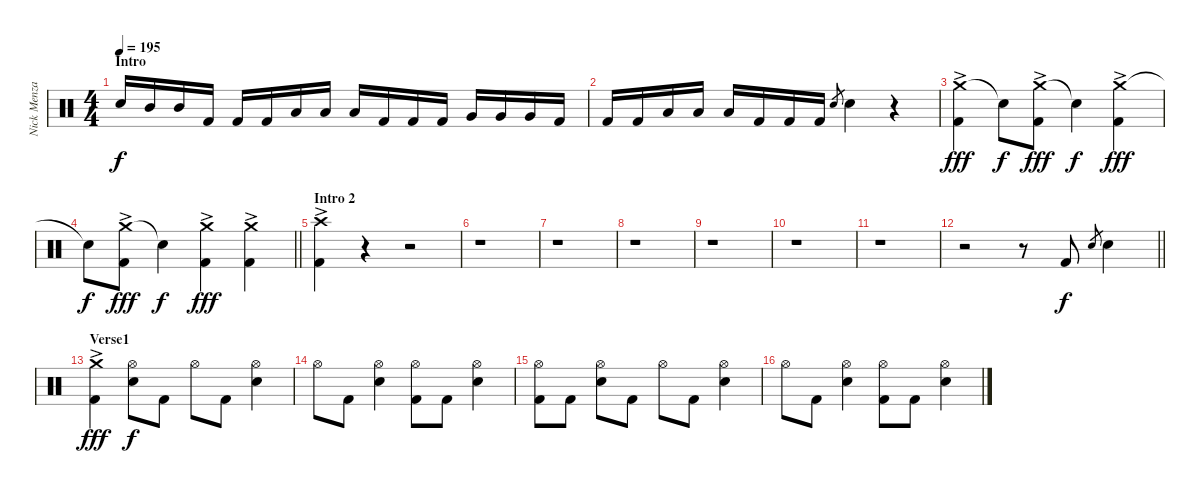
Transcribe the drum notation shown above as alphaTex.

\track ("Nick Menza" "Nick Menza") {instrument percussion}
\staff {score}
\articulation defaults
\ts (4 4)
\section ("" "Intro")
\tempo 195
\clef neutral
\ks c "Snare (hit) 2".16{dy f} "Mid Tom (hit)".16 "Mid Tom (hit)".16 "Kick (hit) 2".16 "Kick (hit) 2".16 "Kick (hit) 2".16 "Low Tom (hit)".16 "Low Tom (hit)".16 "Low Tom (hit)".16 "Kick (hit) 2".16 "Kick (hit) 2".16 "Kick (hit) 2".16 "Very Low Tom (hit)".16 "Very Low Tom (hit)".16 "Very Low Tom (hit)".16 "Kick (hit) 2".16
|
"Kick (hit) 2".16 "Kick (hit) 2".16 "Low Floor Tom (hit)".16 "Low Floor Tom (hit)".16 "Low Floor Tom (hit)".16 "Kick (hit) 2".16 "Kick (hit) 2".16 "Kick (hit) 2".16 "Snare (hit) 2".8{gr} "Snare (hit) 2".4 r.4 |
("Crash medium (hit)"{ac} "Kick (hit) 2").4{dy fff} "Snare (hit)"{t}.8{dy f} ("Crash medium (hit)"{ac} "Kick (hit) 2").8{dy fff} "Snare (hit)"{t}.4{dy f} ("Crash medium (hit)"{ac} "Kick (hit) 2").4{dy fff} |
\barLineRight lightlight "Snare (hit)"{t}.8{dy f}
("Crash medium (hit)"{ac} "Kick (hit) 2").8{dy fff} "Snare (hit)"{t}.4{dy f} ("Crash medium (hit)"{ac} "Kick (hit) 2").4{dy fff} ("Crash medium (hit)"{ac} "Kick (hit) 2").4 |
\section ("" "Intro 2")
("Crash high (hit)"{ac} "Kick (hit) 2").4 r.4 r.2 |
r.1 |
r.1 |
r.1 |
r.1 |
r.1 |
r.1 |
\barLineRight lightlight
r.2 r.8 "Kick (hit) 2".8{dy f} "Snare (hit) 2".8{gr} "Snare (hit) 2".4 |
\section ("" "Verse1")
("Crash medium (hit)"{ac} "Kick (hit) 2").4{dy fff} ("Hi-Hat (open)" "Snare (hit) 2").8{dy f} "Kick (hit) 2".8 "Hi-Hat (open)".8 "Kick (hit) 2".8 ("Hi-Hat (open)" "Snare (hit) 2").4 |
"Hi-Hat (open)".8 "Kick (hit) 2".8 ("Hi-Hat (open)" "Snare (hit) 2").4 ("Hi-Hat (open)" "Kick (hit) 2").8 "Kick (hit) 2".8 ("Hi-Hat (open)" "Snare (hit) 2").4 |
("Hi-Hat (open)" "Kick (hit) 2").8 "Kick (hit) 2".8 ("Hi-Hat (open)" "Snare (hit) 2").8 "Kick (hit) 2".8 "Hi-Hat (open)".8 "Kick (hit) 2".8 ("Hi-Hat (open)" "Snare (hit) 2").4 |
"Hi-Hat (open)".8 "Kick (hit) 2".8 ("Hi-Hat (open)" "Snare (hit) 2").4 ("Hi-Hat (open)" "Kick (hit) 2").8 "Kick (hit) 2".8 ("Hi-Hat (open)" "Snare (hit) 2").4
